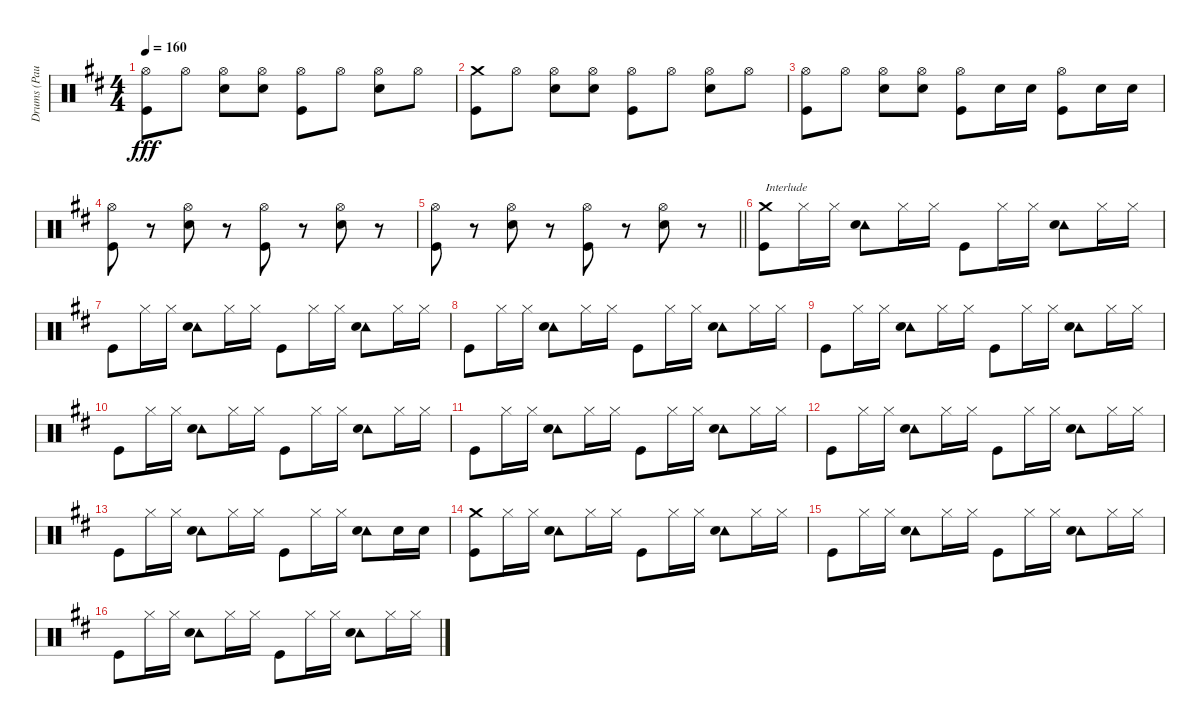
\track ("Drums (Paul)" "Drums (Pau") {instrument percussion}
\staff {score}
\articulation defaults
\ts (4 4)
\tempo 160
\clef neutral
\ks d
("Hi-Hat (open)" "Kick (hit)").8{dy fff} "Hi-Hat (open)".8 ("Hi-Hat (open)" "Electric Snare (hit)").8 ("Hi-Hat (open)" "Electric Snare (hit)").8 ("Hi-Hat (open)" "Kick (hit)").8 "Hi-Hat (open)".8 ("Hi-Hat (open)" "Electric Snare (hit)").8 "Hi-Hat (open)".8 |
("Crash medium (hit)" "Kick (hit)").8 "Hi-Hat (open)".8 ("Hi-Hat (open)" "Electric Snare (hit)").8 ("Hi-Hat (open)" "Electric Snare (hit)").8 ("Hi-Hat (open)" "Kick (hit)").8 "Hi-Hat (open)".8 ("Hi-Hat (open)" "Electric Snare (hit)").8 "Hi-Hat (open)".8 |
("Hi-Hat (open)" "Kick (hit)").8 "Hi-Hat (open)".8 ("Hi-Hat (open)" "Electric Snare (hit)").8 ("Hi-Hat (open)" "Electric Snare (hit)").8 ("Hi-Hat (open)" "Kick (hit)").8 "Electric Snare (hit)".16 "Electric Snare (hit)".16 ("Hi-Hat (open)" "Kick (hit)").8 "Electric Snare (hit)".16 "Electric Snare (hit)".16 |
("Hi-Hat (open)" "Kick (hit)").8 r.8 ("Hi-Hat (open)" "Snare (hit) 2").8 r.8 ("Hi-Hat (open)" "Kick (hit)").8 r.8 ("Hi-Hat (open)" "Snare (hit) 2").8 r.8 |
\barLineRight lightlight
("Hi-Hat (open)" "Kick (hit)").8 r.8 ("Hi-Hat (open)" "Snare (hit) 2").8 r.8 ("Hi-Hat (open)" "Kick (hit)").8 r.8 ("Hi-Hat (open)" "Snare (hit) 2").8 r.8 |
("Crash medium (hit)" "Kick (hit)").8{txt "Interlude"} "Hi-Hat (closed)".16 "Hi-Hat (closed)".16 ("Tambourine (hit)" "Snare (hit) 2").8 "Hi-Hat (closed)".16 "Hi-Hat (closed)".16 "Kick (hit)".8 "Hi-Hat (closed)".16 "Hi-Hat (closed)".16 ("Tambourine (hit)" "Snare (hit) 2").8 "Hi-Hat (closed)".16 "Hi-Hat (closed)".16 |
"Kick (hit)".8 "Hi-Hat (closed)".16 "Hi-Hat (closed)".16 ("Tambourine (hit)" "Snare (hit) 2").8 "Hi-Hat (closed)".16 "Hi-Hat (closed)".16 "Kick (hit)".8 "Hi-Hat (closed)".16 "Hi-Hat (closed)".16 ("Tambourine (hit)" "Snare (hit) 2").8 "Hi-Hat (closed)".16 "Hi-Hat (closed)".16 |
"Kick (hit)".8 "Hi-Hat (closed)".16 "Hi-Hat (closed)".16 ("Tambourine (hit)" "Snare (hit) 2").8 "Hi-Hat (closed)".16 "Hi-Hat (closed)".16 "Kick (hit)".8 "Hi-Hat (closed)".16 "Hi-Hat (closed)".16 ("Tambourine (hit)" "Snare (hit) 2").8 "Hi-Hat (closed)".16 "Hi-Hat (closed)".16 |
"Kick (hit)".8 "Hi-Hat (closed)".16 "Hi-Hat (closed)".16 ("Tambourine (hit)" "Snare (hit) 2").8 "Hi-Hat (closed)".16 "Hi-Hat (closed)".16 "Kick (hit)".8 "Hi-Hat (closed)".16 "Hi-Hat (closed)".16 ("Tambourine (hit)" "Snare (hit) 2").8 "Hi-Hat (closed)".16 "Hi-Hat (closed)".16 |
"Kick (hit)".8 "Hi-Hat (closed)".16 "Hi-Hat (closed)".16 ("Tambourine (hit)" "Snare (hit) 2").8 "Hi-Hat (closed)".16 "Hi-Hat (closed)".16 "Kick (hit)".8 "Hi-Hat (closed)".16 "Hi-Hat (closed)".16 ("Tambourine (hit)" "Snare (hit) 2").8 "Hi-Hat (closed)".16 "Hi-Hat (closed)".16 |
"Kick (hit)".8 "Hi-Hat (closed)".16 "Hi-Hat (closed)".16 ("Tambourine (hit)" "Snare (hit) 2").8 "Hi-Hat (closed)".16 "Hi-Hat (closed)".16 "Kick (hit)".8 "Hi-Hat (closed)".16 "Hi-Hat (closed)".16 ("Tambourine (hit)" "Snare (hit) 2").8 "Hi-Hat (closed)".16 "Hi-Hat (closed)".16 |
"Kick (hit)".8 "Hi-Hat (closed)".16 "Hi-Hat (closed)".16 ("Tambourine (hit)" "Snare (hit) 2").8 "Hi-Hat (closed)".16 "Hi-Hat (closed)".16 "Kick (hit)".8 "Hi-Hat (closed)".16 "Hi-Hat (closed)".16 ("Tambourine (hit)" "Snare (hit) 2").8 "Hi-Hat (closed)".16 "Hi-Hat (closed)".16 |
"Kick (hit)".8 "Hi-Hat (closed)".16 "Hi-Hat (closed)".16 ("Tambourine (hit)" "Snare (hit) 2").8 "Hi-Hat (closed)".16 "Hi-Hat (closed)".16 "Kick (hit)".8 "Hi-Hat (closed)".16 "Hi-Hat (closed)".16 ("Tambourine (hit)" "Snare (hit) 2").8 "Snare (hit) 2".16 "Snare (hit) 2".16 |
("Crash medium (hit)" "Kick (hit)").8 "Hi-Hat (closed)".16 "Hi-Hat (closed)".16 ("Tambourine (hit)" "Snare (hit) 2").8 "Hi-Hat (closed)".16 "Hi-Hat (closed)".16 "Kick (hit)".8 "Hi-Hat (closed)".16 "Hi-Hat (closed)".16 ("Tambourine (hit)" "Snare (hit) 2").8 "Hi-Hat (closed)".16 "Hi-Hat (closed)".16 |
"Kick (hit)".8 "Hi-Hat (closed)".16 "Hi-Hat (closed)".16 ("Tambourine (hit)" "Snare (hit) 2").8 "Hi-Hat (closed)".16 "Hi-Hat (closed)".16 "Kick (hit)".8 "Hi-Hat (closed)".16 "Hi-Hat (closed)".16 ("Tambourine (hit)" "Snare (hit) 2").8 "Hi-Hat (closed)".16 "Hi-Hat (closed)".16 |
"Kick (hit)".8 "Hi-Hat (closed)".16 "Hi-Hat (closed)".16 ("Tambourine (hit)" "Snare (hit) 2").8 "Hi-Hat (closed)".16 "Hi-Hat (closed)".16 "Kick (hit)".8 "Hi-Hat (closed)".16 "Hi-Hat (closed)".16 ("Tambourine (hit)" "Snare (hit) 2").8 "Hi-Hat (closed)".16 "Hi-Hat (closed)".16
